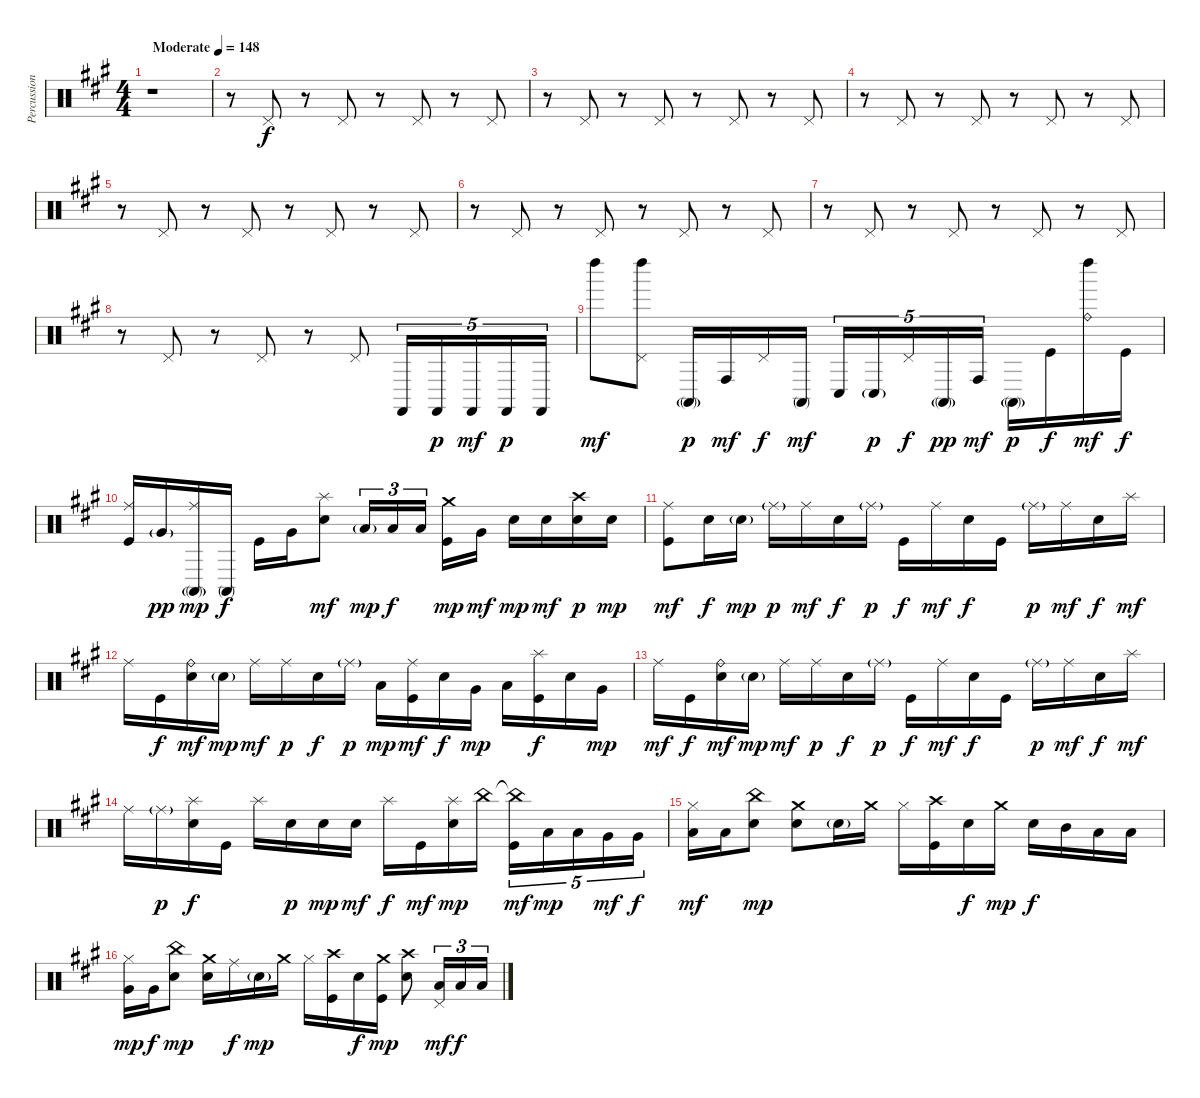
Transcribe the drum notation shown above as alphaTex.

\track ("Percussion" "Percussion") {instrument percussion}
\staff {score}
\articulation defaults
\ts (4 4)
\tempo (148 "Moderate")
\clef neutral
\ks a
r.1{dy f volume 3} |
r.8{volume 7} "Pedal Hi-Hat (hit)".8 r.8 "Pedal Hi-Hat (hit)".8 r.8 "Pedal Hi-Hat (hit)".8 r.8 "Pedal Hi-Hat (hit)".8 |
r.8 "Pedal Hi-Hat (hit)".8 r.8 "Pedal Hi-Hat (hit)".8 r.8 "Pedal Hi-Hat (hit)".8 r.8 "Pedal Hi-Hat (hit)".8 |
r.8 "Pedal Hi-Hat (hit)".8 r.8 "Pedal Hi-Hat (hit)".8 r.8 "Pedal Hi-Hat (hit)".8 r.8 "Pedal Hi-Hat (hit)".8 |
r.8 "Pedal Hi-Hat (hit)".8 r.8 "Pedal Hi-Hat (hit)".8 r.8 "Pedal Hi-Hat (hit)".8 r.8 "Pedal Hi-Hat (hit)".8 |
r.8{volume 8} "Pedal Hi-Hat (hit)".8 r.8 "Pedal Hi-Hat (hit)".8 r.8 "Pedal Hi-Hat (hit)".8 r.8 "Pedal Hi-Hat (hit)".8 |
r.8 "Pedal Hi-Hat (hit)".8 r.8 "Pedal Hi-Hat (hit)".8 r.8 "Pedal Hi-Hat (hit)".8 r.8 "Pedal Hi-Hat (hit)".8 |
r.8 "Pedal Hi-Hat (hit)".8 r.8 "Pedal Hi-Hat (hit)".8 r.8 "Pedal Hi-Hat (hit)".8 "Castanets (hit)".16{tu (5 4)} "Castanets (hit)".16{tu (5 4) dy p} "Castanets (hit)".16{tu (5 4) dy mf} "Castanets (hit)".16{tu (5 4) dy p} "Castanets (hit)".16{tu (5 4)} |
"Left Maraca (hit)".8{dy mf} ("Pedal Hi-Hat (hit)" "Left Maraca (hit)").8 "Conga high (mute)"{g}.16{dy p} "Conga high (hit)".16{dy mf} "Pedal Hi-Hat (hit)".16{dy f} "Conga high (mute)".16{dy mf} "Conga low (hit)".16{tu (5 4)} "Conga low (hit)"{g}.16{tu (5 4) dy p} "Pedal Hi-Hat (hit)".16{tu (5 4) dy f} "Conga high (mute)"{g}.16{tu (5 4) dy pp} "Conga high (hit)".16{tu (5 4) dy mf} "Conga high (mute)"{g}.16{dy p} "Kick (hit)".16{dy f} ("Ride (bell)" "Left Maraca (hit)").16{dy mf} "Kick (hit)".16{dy f} |
("Ride (middle)" "Kick (hit)").16 "Very Low Tom (hit)"{g}.16{dy pp} ("Ride (middle)" "Conga high (mute)"{g}).16{dy mp} "Conga high (mute)".16{dy f} "Kick (hit)".16 "Very Low Tom (hit)".16 ("Splash (hit)" "Electric Snare (hit)").8{dy mf} "Low Floor Tom (hit)"{g}.16{tu (3 2) dy mp} "Low Floor Tom (hit)".16{tu (3 2) dy f} "Low Floor Tom (hit)".16{tu (3 2) beam splitsecondary} ("Crash medium (hit)" "Kick (hit)").16{dy mp} "Very Low Tom (hit)".16{dy mf} "Electric Snare (hit)".16{dy mp} "Electric Snare (hit)".16{dy mf} ("Crash high (hit)" "Electric Snare (hit)").16{dy p} "Electric Snare (hit)".16{dy mp} |
("Ride (middle)" "Kick (hit)").8{dy mf} "Electric Snare (hit)".16{dy f} "Electric Snare (hit)"{g}.16{dy mp} "Ride (middle)"{g}.16{dy p} "Ride (middle)".16{dy mf} "Electric Snare (hit)".16{dy f} "Ride (middle)"{g}.16{dy p} "Kick (hit)".16{dy f} "Ride (middle)".16{dy mf} "Electric Snare (hit)".16{dy f} "Kick (hit)".16 "Ride (middle)"{g}.16{dy p} "Ride (middle)".16{dy mf} "Electric Snare (hit)".16{dy f} "Splash (hit)".16{dy mf} |
"Ride (middle)".16 "Kick (hit)".16{dy f} ("Ride (bell)" "Electric Snare (hit)").16{dy mf} "Electric Snare (hit)"{g}.16{dy mp} "Ride (middle)".16{dy mf} "Ride (middle)".16{dy p} "Electric Snare (hit)".16{dy f} "Ride (middle)"{g}.16{dy p} "Low Floor Tom (hit)".16{dy mp} ("Ride (middle)" "Kick (hit)").16{dy mf} "Electric Snare (hit)".16{dy f} "Very Low Tom (hit)".16{dy mp} "Low Floor Tom (hit)".16 ("Splash (hit)" "Kick (hit)").16{dy f} "Electric Snare (hit)".16 "Very Low Tom (hit)".16{dy mp} |
"Ride (middle)".16{dy mf} "Kick (hit)".16{dy f} ("Ride (bell)" "Electric Snare (hit)").16{dy mf} "Electric Snare (hit)"{g}.16{dy mp} "Ride (middle)".16{dy mf} "Ride (middle)".16{dy p} "Electric Snare (hit)".16{dy f} "Ride (middle)"{g}.16{dy p} "Kick (hit)".16{dy f} "Ride (middle)".16{dy mf} "Electric Snare (hit)".16{dy f} "Kick (hit)".16 "Ride (middle)"{g}.16{dy p} "Ride (middle)".16{dy mf} "Electric Snare (hit)".16{dy f} "Splash (hit)".16{dy mf} |
"Ride (middle)".16 "Ride (middle)"{g}.16{dy p} ("Splash (hit)" "Electric Snare (hit)").16{dy f} "Kick (hit)".16 "Splash (hit)".16 "Electric Snare (hit)".16{dy p} "Electric Snare (hit)".16{dy mp} "Electric Snare (hit)".16{dy mf} "Splash (hit)".16{dy f} "Kick (hit)".16{dy mf} ("Splash (hit)" "Electric Snare (hit)").16{dy mp} "China (hit)".16 ("China (hit)"{t} "Kick (hit)").16{tu (5 4) dy mf} "Low Tom (hit)".16{tu (5 4) dy mp} "Low Tom (hit)".16{tu (5 4)} "Very Low Tom (hit)".16{tu (5 4) dy mf} "Very Low Tom (hit)".16{tu (5 4) dy f} |
("Hi-Hat (closed)" "Low Floor Tom (hit)").16{dy mf} "Low Floor Tom (hit)".16 ("China (hit)" "Electric Snare (hit)").8{dy mp} ("Crash medium (hit)" "Electric Snare (hit)").8 "Electric Snare (hit)"{g}.16 "Crash medium (hit)".16 "Hi-Hat (closed)".16 ("Crash high (hit)" "Kick (hit)").16 "Electric Snare (hit)".16{dy f} "Crash medium (hit)".16{dy mp} "Electric Snare (hit)".16{dy f} "Mid Tom (hit)".16 "Low Tom (hit)".16 "Low Tom (hit)".16 |
("Hi-Hat (closed)" "Very Low Tom (hit)").16{dy mp} "Very Low Tom (hit)".16{dy f} ("China (hit)" "Electric Snare (hit)").8{dy mp} ("Crash medium (hit)" "Electric Snare (hit)").16 "Ride (middle)".16{dy f} "Electric Snare (hit)"{g}.16{dy mp} "Crash medium (hit)".16 "Hi-Hat (closed)".16 ("Crash high (hit)" "Kick (hit)").16 "Electric Snare (hit)".16{dy f} ("Crash medium (hit)" "Kick (hit)").16{dy mp} ("Crash high (hit)" "Electric Snare (hit)").8 ("Pedal Hi-Hat (hit)" "Low Floor Tom (hit)").16{tu (3 2) dy mf} "Low Floor Tom (hit)".16{tu (3 2) dy f} "Low Floor Tom (hit)".16{tu (3 2)}
